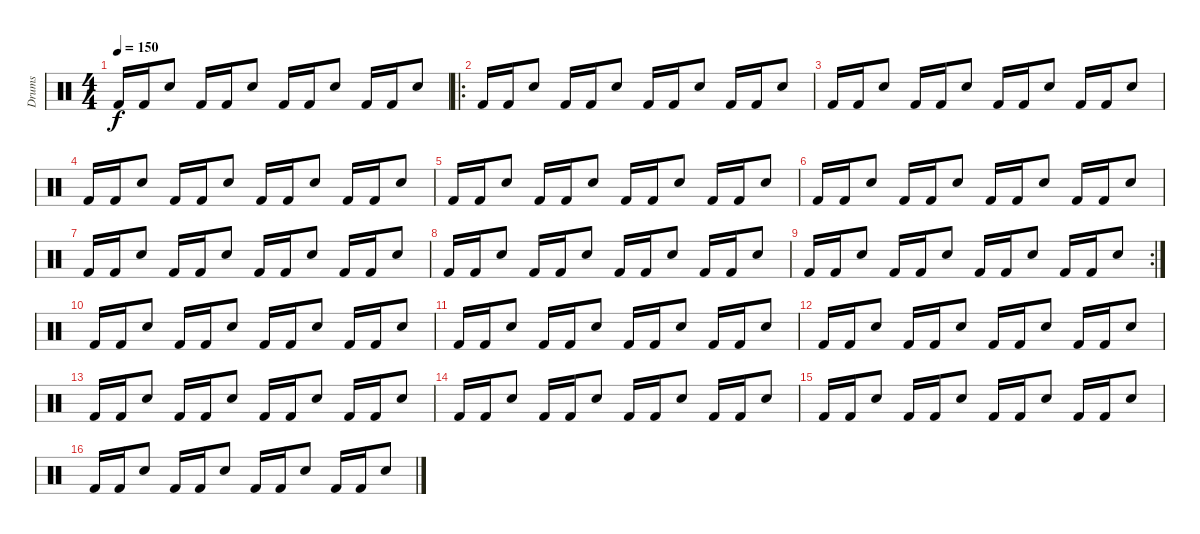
\track ("Drums" "Drums") {instrument percussion}
\staff {score}
\articulation defaults
\ts (4 4)
\tempo 150
\clef neutral
\ks c "Kick (hit) 2".16{dy f} "Kick (hit) 2".16 "Snare (hit) 2".8 "Kick (hit) 2".16 "Kick (hit) 2".16 "Snare (hit) 2".8 "Kick (hit) 2".16 "Kick (hit) 2".16 "Snare (hit) 2".8 "Kick (hit) 2".16 "Kick (hit) 2".16 "Snare (hit) 2".8
|
\ro "Kick (hit) 2".16 "Kick (hit) 2".16 "Snare (hit) 2".8 "Kick (hit) 2".16 "Kick (hit) 2".16 "Snare (hit) 2".8 "Kick (hit) 2".16 "Kick (hit) 2".16 "Snare (hit) 2".8 "Kick (hit) 2".16 "Kick (hit) 2".16 "Snare (hit) 2".8
|
"Kick (hit) 2".16 "Kick (hit) 2".16 "Snare (hit) 2".8 "Kick (hit) 2".16 "Kick (hit) 2".16 "Snare (hit) 2".8 "Kick (hit) 2".16 "Kick (hit) 2".16 "Snare (hit) 2".8 "Kick (hit) 2".16 "Kick (hit) 2".16 "Snare (hit) 2".8 |
"Kick (hit) 2".16 "Kick (hit) 2".16 "Snare (hit) 2".8 "Kick (hit) 2".16 "Kick (hit) 2".16 "Snare (hit) 2".8 "Kick (hit) 2".16 "Kick (hit) 2".16 "Snare (hit) 2".8 "Kick (hit) 2".16 "Kick (hit) 2".16 "Snare (hit) 2".8 |
"Kick (hit) 2".16 "Kick (hit) 2".16 "Snare (hit) 2".8 "Kick (hit) 2".16 "Kick (hit) 2".16 "Snare (hit) 2".8 "Kick (hit) 2".16 "Kick (hit) 2".16 "Snare (hit) 2".8 "Kick (hit) 2".16 "Kick (hit) 2".16 "Snare (hit) 2".8 |
"Kick (hit) 2".16 "Kick (hit) 2".16 "Snare (hit) 2".8 "Kick (hit) 2".16 "Kick (hit) 2".16 "Snare (hit) 2".8 "Kick (hit) 2".16 "Kick (hit) 2".16 "Snare (hit) 2".8 "Kick (hit) 2".16 "Kick (hit) 2".16 "Snare (hit) 2".8 |
"Kick (hit) 2".16 "Kick (hit) 2".16 "Snare (hit) 2".8 "Kick (hit) 2".16 "Kick (hit) 2".16 "Snare (hit) 2".8 "Kick (hit) 2".16 "Kick (hit) 2".16 "Snare (hit) 2".8 "Kick (hit) 2".16 "Kick (hit) 2".16 "Snare (hit) 2".8 |
"Kick (hit) 2".16 "Kick (hit) 2".16 "Snare (hit) 2".8 "Kick (hit) 2".16 "Kick (hit) 2".16 "Snare (hit) 2".8 "Kick (hit) 2".16 "Kick (hit) 2".16 "Snare (hit) 2".8 "Kick (hit) 2".16 "Kick (hit) 2".16 "Snare (hit) 2".8 |
\rc 2 "Kick (hit) 2".16 "Kick (hit) 2".16 "Snare (hit) 2".8 "Kick (hit) 2".16 "Kick (hit) 2".16 "Snare (hit) 2".8 "Kick (hit) 2".16 "Kick (hit) 2".16 "Snare (hit) 2".8 "Kick (hit) 2".16 "Kick (hit) 2".16 "Snare (hit) 2".8
|
"Kick (hit) 2".16 "Kick (hit) 2".16 "Snare (hit) 2".8 "Kick (hit) 2".16 "Kick (hit) 2".16 "Snare (hit) 2".8 "Kick (hit) 2".16 "Kick (hit) 2".16 "Snare (hit) 2".8 "Kick (hit) 2".16 "Kick (hit) 2".16 "Snare (hit) 2".8 |
"Kick (hit) 2".16 "Kick (hit) 2".16 "Snare (hit) 2".8 "Kick (hit) 2".16 "Kick (hit) 2".16 "Snare (hit) 2".8 "Kick (hit) 2".16 "Kick (hit) 2".16 "Snare (hit) 2".8 "Kick (hit) 2".16 "Kick (hit) 2".16 "Snare (hit) 2".8 |
"Kick (hit) 2".16 "Kick (hit) 2".16 "Snare (hit) 2".8 "Kick (hit) 2".16 "Kick (hit) 2".16 "Snare (hit) 2".8 "Kick (hit) 2".16 "Kick (hit) 2".16 "Snare (hit) 2".8 "Kick (hit) 2".16 "Kick (hit) 2".16 "Snare (hit) 2".8 |
"Kick (hit) 2".16 "Kick (hit) 2".16 "Snare (hit) 2".8 "Kick (hit) 2".16 "Kick (hit) 2".16 "Snare (hit) 2".8 "Kick (hit) 2".16 "Kick (hit) 2".16 "Snare (hit) 2".8 "Kick (hit) 2".16 "Kick (hit) 2".16 "Snare (hit) 2".8 |
"Kick (hit) 2".16 "Kick (hit) 2".16 "Snare (hit) 2".8 "Kick (hit) 2".16 "Kick (hit) 2".16 "Snare (hit) 2".8 "Kick (hit) 2".16 "Kick (hit) 2".16 "Snare (hit) 2".8 "Kick (hit) 2".16 "Kick (hit) 2".16 "Snare (hit) 2".8 |
"Kick (hit) 2".16 "Kick (hit) 2".16 "Snare (hit) 2".8 "Kick (hit) 2".16 "Kick (hit) 2".16 "Snare (hit) 2".8 "Kick (hit) 2".16 "Kick (hit) 2".16 "Snare (hit) 2".8 "Kick (hit) 2".16 "Kick (hit) 2".16 "Snare (hit) 2".8 |
"Kick (hit) 2".16 "Kick (hit) 2".16 "Snare (hit) 2".8 "Kick (hit) 2".16 "Kick (hit) 2".16 "Snare (hit) 2".8 "Kick (hit) 2".16 "Kick (hit) 2".16 "Snare (hit) 2".8 "Kick (hit) 2".16 "Kick (hit) 2".16 "Snare (hit) 2".8
